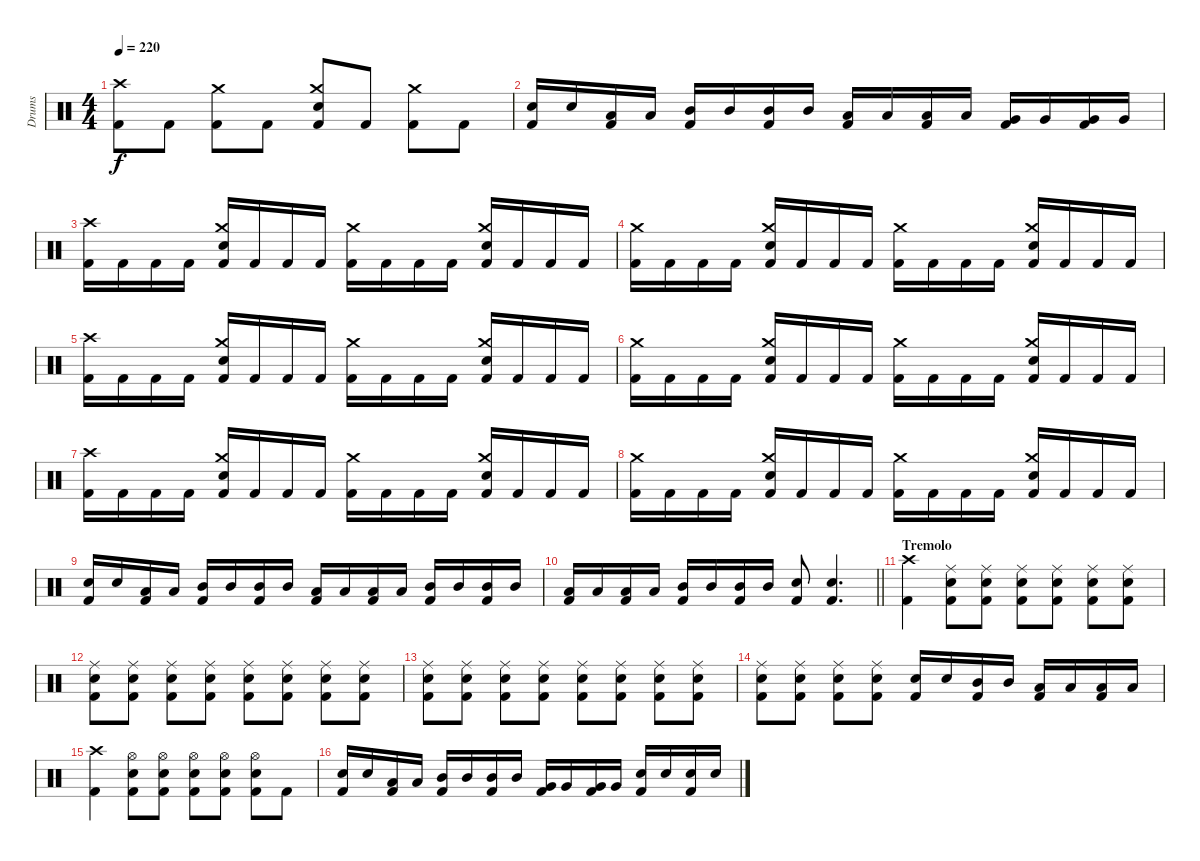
\track ("Drums" "Drums") {instrument percussion}
\staff {score}
\articulation defaults
\ts (4 4)
\tempo 220
\clef neutral
\ks c
("Crash high (hit)" "Kick (hit) 2").8{dy f} "Kick (hit) 2".8 ("Crash medium (hit)" "Kick (hit) 2").8 "Kick (hit) 2".8 ("Crash medium (hit)" "Electric Snare (hit)" "Kick (hit) 2").8 "Kick (hit) 2".8 ("Crash medium (hit)" "Kick (hit) 2").8 "Kick (hit) 2".8 |
("Electric Snare (hit)" "Kick (hit) 2").16 "Electric Snare (hit)".16 ("Low Tom (hit)" "Kick (hit) 2").16 "Low Tom (hit)".16 ("Mid Tom (hit)" "Kick (hit) 2").16 "Mid Tom (hit)".16 ("Mid Tom (hit)" "Kick (hit) 2").16 "Mid Tom (hit)".16 ("Low Tom (hit)" "Kick (hit) 2").16 "Low Tom (hit)".16 ("Low Tom (hit)" "Kick (hit) 2").16 "Low Tom (hit)".16 ("Very Low Tom (hit)" "Kick (hit) 2").16 "Very Low Tom (hit)".16 ("Very Low Tom (hit)" "Kick (hit) 2").16 "Very Low Tom (hit)".16 |
("Kick (hit) 2" "Crash high (hit)").16 "Kick (hit) 2".16 "Kick (hit) 2".16 "Kick (hit) 2".16 ("Kick (hit) 2" "Crash medium (hit)" "Electric Snare (hit)").16 "Kick (hit) 2".16 "Kick (hit) 2".16 "Kick (hit) 2".16 ("Kick (hit) 2" "Crash medium (hit)").16 "Kick (hit) 2".16 "Kick (hit) 2".16 "Kick (hit) 2".16 ("Kick (hit) 2" "Crash medium (hit)" "Electric Snare (hit)").16 "Kick (hit) 2".16 "Kick (hit) 2".16 "Kick (hit) 2".16 |
("Kick (hit) 2" "Crash medium (hit)").16 "Kick (hit) 2".16 "Kick (hit) 2".16 "Kick (hit) 2".16 ("Kick (hit) 2" "Crash medium (hit)" "Electric Snare (hit)").16 "Kick (hit) 2".16 "Kick (hit) 2".16 "Kick (hit) 2".16 ("Kick (hit) 2" "Crash medium (hit)").16 "Kick (hit) 2".16 "Kick (hit) 2".16 "Kick (hit) 2".16 ("Kick (hit) 2" "Crash medium (hit)" "Electric Snare (hit)").16 "Kick (hit) 2".16 "Kick (hit) 2".16 "Kick (hit) 2".16 |
("Kick (hit) 2" "Crash high (hit)").16 "Kick (hit) 2".16 "Kick (hit) 2".16 "Kick (hit) 2".16 ("Kick (hit) 2" "Crash medium (hit)" "Electric Snare (hit)").16 "Kick (hit) 2".16 "Kick (hit) 2".16 "Kick (hit) 2".16 ("Kick (hit) 2" "Crash medium (hit)").16 "Kick (hit) 2".16 "Kick (hit) 2".16 "Kick (hit) 2".16 ("Kick (hit) 2" "Crash medium (hit)" "Electric Snare (hit)").16 "Kick (hit) 2".16 "Kick (hit) 2".16 "Kick (hit) 2".16 |
("Kick (hit) 2" "Crash medium (hit)").16 "Kick (hit) 2".16 "Kick (hit) 2".16 "Kick (hit) 2".16 ("Kick (hit) 2" "Crash medium (hit)" "Electric Snare (hit)").16 "Kick (hit) 2".16 "Kick (hit) 2".16 "Kick (hit) 2".16 ("Kick (hit) 2" "Crash medium (hit)").16 "Kick (hit) 2".16 "Kick (hit) 2".16 "Kick (hit) 2".16 ("Kick (hit) 2" "Crash medium (hit)" "Electric Snare (hit)").16 "Kick (hit) 2".16 "Kick (hit) 2".16 "Kick (hit) 2".16 |
("Kick (hit) 2" "Crash high (hit)").16 "Kick (hit) 2".16 "Kick (hit) 2".16 "Kick (hit) 2".16 ("Kick (hit) 2" "Crash medium (hit)" "Electric Snare (hit)").16 "Kick (hit) 2".16 "Kick (hit) 2".16 "Kick (hit) 2".16 ("Kick (hit) 2" "Crash medium (hit)").16 "Kick (hit) 2".16 "Kick (hit) 2".16 "Kick (hit) 2".16 ("Kick (hit) 2" "Crash medium (hit)" "Electric Snare (hit)").16 "Kick (hit) 2".16 "Kick (hit) 2".16 "Kick (hit) 2".16 |
("Kick (hit) 2" "Crash medium (hit)").16 "Kick (hit) 2".16 "Kick (hit) 2".16 "Kick (hit) 2".16 ("Kick (hit) 2" "Crash medium (hit)" "Electric Snare (hit)").16 "Kick (hit) 2".16 "Kick (hit) 2".16 "Kick (hit) 2".16 ("Kick (hit) 2" "Crash medium (hit)").16 "Kick (hit) 2".16 "Kick (hit) 2".16 "Kick (hit) 2".16 ("Kick (hit) 2" "Crash medium (hit)" "Electric Snare (hit)").16 "Kick (hit) 2".16 "Kick (hit) 2".16 "Kick (hit) 2".16 |
("Electric Snare (hit)" "Kick (hit) 2").16 "Electric Snare (hit)".16 ("Low Tom (hit)" "Kick (hit) 2").16 "Low Tom (hit)".16 ("Mid Tom (hit)" "Kick (hit) 2").16 "Mid Tom (hit)".16 ("Mid Tom (hit)" "Kick (hit) 2").16 "Mid Tom (hit)".16 ("Low Tom (hit)" "Kick (hit) 2").16 "Low Tom (hit)".16 ("Low Tom (hit)" "Kick (hit) 2").16 "Low Tom (hit)".16 ("Mid Tom (hit)" "Kick (hit) 2").16 "Mid Tom (hit)".16 ("Mid Tom (hit)" "Kick (hit) 2").16 "Mid Tom (hit)".16 |
\barLineRight lightlight
("Low Tom (hit)" "Kick (hit) 2").16 "Low Tom (hit)".16 ("Low Tom (hit)" "Kick (hit) 2").16 "Low Tom (hit)".16 ("Mid Tom (hit)" "Kick (hit) 2").16 "Mid Tom (hit)".16 ("Mid Tom (hit)" "Kick (hit) 2").16 "Mid Tom (hit)".16 ("Electric Snare (hit)" "Kick (hit) 2").8 ("Electric Snare (hit)" "Kick (hit) 2").4{d} |
\section ("" "Tremolo")
("Kick (hit) 2" "Crash high (hit)").4 ("Kick (hit) 2" "Ride (middle)" "Electric Snare (hit)").8 ("Kick (hit) 2" "Ride (middle)" "Electric Snare (hit)").8 ("Kick (hit) 2" "Ride (middle)" "Electric Snare (hit)").8 ("Kick (hit) 2" "Ride (middle)" "Electric Snare (hit)").8 ("Kick (hit) 2" "Ride (middle)" "Electric Snare (hit)").8 ("Kick (hit) 2" "Ride (middle)" "Electric Snare (hit)").8 |
("Kick (hit) 2" "Ride (middle)" "Electric Snare (hit)").8 ("Kick (hit) 2" "Ride (middle)" "Electric Snare (hit)").8 ("Kick (hit) 2" "Ride (middle)" "Electric Snare (hit)").8 ("Kick (hit) 2" "Ride (middle)" "Electric Snare (hit)").8 ("Kick (hit) 2" "Ride (middle)" "Electric Snare (hit)").8 ("Kick (hit) 2" "Ride (middle)" "Electric Snare (hit)").8 ("Kick (hit) 2" "Ride (middle)" "Electric Snare (hit)").8 ("Kick (hit) 2" "Ride (middle)" "Electric Snare (hit)").8 |
("Kick (hit) 2" "Ride (middle)" "Electric Snare (hit)").8 ("Kick (hit) 2" "Ride (middle)" "Electric Snare (hit)").8 ("Kick (hit) 2" "Ride (middle)" "Electric Snare (hit)").8 ("Kick (hit) 2" "Ride (middle)" "Electric Snare (hit)").8 ("Kick (hit) 2" "Ride (middle)" "Electric Snare (hit)").8 ("Kick (hit) 2" "Ride (middle)" "Electric Snare (hit)").8 ("Kick (hit) 2" "Ride (middle)" "Electric Snare (hit)").8 ("Kick (hit) 2" "Ride (middle)" "Electric Snare (hit)").8 |
("Kick (hit) 2" "Ride (middle)" "Electric Snare (hit)").8 ("Kick (hit) 2" "Ride (middle)" "Electric Snare (hit)").8 ("Kick (hit) 2" "Ride (middle)" "Electric Snare (hit)").8 ("Kick (hit) 2" "Ride (middle)" "Electric Snare (hit)").8 ("Electric Snare (hit)" "Kick (hit) 2").16 "Electric Snare (hit)".16 ("Mid Tom (hit)" "Kick (hit) 2").16 "Mid Tom (hit)".16 ("Low Tom (hit)" "Kick (hit) 2").16 "Low Tom (hit)".16 ("Low Tom (hit)" "Kick (hit) 2").16 "Low Tom (hit)".16 |
("Kick (hit) 2" "Crash high (hit)").4 ("Kick (hit) 2" "Hi-Hat (open)" "Electric Snare (hit)").8 ("Kick (hit) 2" "Hi-Hat (open)" "Electric Snare (hit)").8 ("Kick (hit) 2" "Hi-Hat (open)" "Electric Snare (hit)").8 ("Kick (hit) 2" "Hi-Hat (open)" "Electric Snare (hit)").8 ("Kick (hit) 2" "Hi-Hat (open)" "Electric Snare (hit)").8 "Kick (hit) 2".8 |
("Electric Snare (hit)" "Kick (hit) 2").16 "Electric Snare (hit)".16 ("Low Tom (hit)" "Kick (hit) 2").16 "Low Tom (hit)".16 ("Mid Tom (hit)" "Kick (hit) 2").16 "Mid Tom (hit)".16 ("Mid Tom (hit)" "Kick (hit) 2").16 "Mid Tom (hit)".16 ("Very Low Tom (hit)" "Kick (hit) 2").16 "Very Low Tom (hit)".16 ("Very Low Tom (hit)" "Kick (hit) 2").16 "Very Low Tom (hit)".16 ("Electric Snare (hit)" "Kick (hit) 2").16 "Electric Snare (hit)".16 ("Electric Snare (hit)" "Kick (hit) 2").16 "Electric Snare (hit)".16
